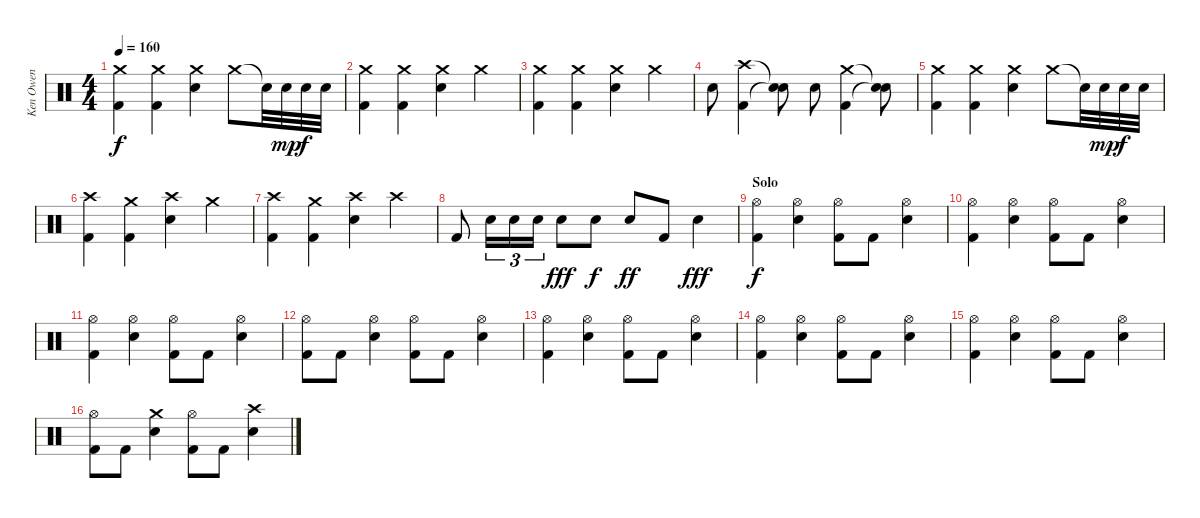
\track ("Ken Owen" "Ken Owen") {instrument percussion}
\staff {score}
\articulation defaults
\ts (4 4)
\tempo 160
\clef neutral
\ks c
("Crash medium (hit)" "Kick (hit) 2").4{dy f} ("Crash medium (hit)" "Kick (hit) 2").4 ("Crash medium (hit)" "Electric Snare (hit)").4 "Crash medium (hit)".8 "Snare (hit)"{t}.32 "Electric Snare (hit)".32{dy mp} "Electric Snare (hit)".32{dy f} "Electric Snare (hit)".32 |
("Crash medium (hit)" "Kick (hit) 2").4 ("Crash medium (hit)" "Kick (hit) 2").4 ("Crash medium (hit)" "Electric Snare (hit)").4 "Crash medium (hit)".4 |
("Crash medium (hit)" "Kick (hit) 2").4 ("Crash medium (hit)" "Kick (hit) 2").4 ("Crash medium (hit)" "Electric Snare (hit)").4 "Crash medium (hit)".4 |
"Electric Snare (hit)".8 ("Crash high (hit)" "Kick (hit) 2").4 ("Snare (hit)"{t} "Snare (hit)"{t}).8 "Electric Snare (hit)".8 ("Crash medium (hit)" "Kick (hit) 2").4 ("Snare (hit)"{t} "Snare (hit)"{t}).8 |
("Crash medium (hit)" "Kick (hit) 2").4 ("Crash medium (hit)" "Kick (hit) 2").4 ("Crash medium (hit)" "Electric Snare (hit)").4 "Crash medium (hit)".8 "Snare (hit)"{t}.32 "Electric Snare (hit)".32{dy mp} "Electric Snare (hit)".32{dy f} "Electric Snare (hit)".32 |
("Crash high (hit)" "Kick (hit) 2").4 ("Crash medium (hit)" "Kick (hit) 2").4 ("Crash high (hit)" "Electric Snare (hit)").4 "Crash medium (hit)".4 |
("Crash high (hit)" "Kick (hit) 2").4 ("Crash medium (hit)" "Kick (hit) 2").4 ("Crash high (hit)" "Electric Snare (hit)").4 "Crash high (hit)".4 |
"Kick (hit) 2".8 "Electric Snare (hit)".16{tu (3 2)} "Electric Snare (hit)".16{tu (3 2)} "Electric Snare (hit)".16{tu (3 2)} "Electric Snare (hit)".8{dy fff} "Electric Snare (hit)".8{dy f} "Electric Snare (hit)".8{dy ff} "Kick (hit) 2".8 "Electric Snare (hit)".4{dy fff} |
\section ("" "Solo")
("Hi-Hat (open)" "Kick (hit) 2").4{dy f} ("Hi-Hat (open)" "Electric Snare (hit)").4 ("Hi-Hat (open)" "Kick (hit) 2").8 "Kick (hit) 2".8 ("Hi-Hat (open)" "Electric Snare (hit)").4 |
("Hi-Hat (open)" "Kick (hit) 2").4 ("Hi-Hat (open)" "Electric Snare (hit)").4 ("Hi-Hat (open)" "Kick (hit) 2").8 "Kick (hit) 2".8 ("Hi-Hat (open)" "Electric Snare (hit)").4 |
("Hi-Hat (open)" "Kick (hit) 2").4 ("Hi-Hat (open)" "Electric Snare (hit)").4 ("Hi-Hat (open)" "Kick (hit) 2").8 "Kick (hit) 2".8 ("Hi-Hat (open)" "Electric Snare (hit)").4 |
("Hi-Hat (open)" "Kick (hit) 2").8 "Kick (hit) 2".8 ("Hi-Hat (open)" "Electric Snare (hit)").4 ("Hi-Hat (open)" "Kick (hit) 2").8 "Kick (hit) 2".8 ("Hi-Hat (open)" "Electric Snare (hit)").4 |
("Hi-Hat (open)" "Kick (hit) 2").4 ("Hi-Hat (open)" "Electric Snare (hit)").4 ("Hi-Hat (open)" "Kick (hit) 2").8 "Kick (hit) 2".8 ("Hi-Hat (open)" "Electric Snare (hit)").4 |
("Hi-Hat (open)" "Kick (hit) 2").4 ("Hi-Hat (open)" "Electric Snare (hit)").4 ("Hi-Hat (open)" "Kick (hit) 2").8 "Kick (hit) 2".8 ("Hi-Hat (open)" "Electric Snare (hit)").4 |
("Hi-Hat (open)" "Kick (hit) 2").4 ("Hi-Hat (open)" "Electric Snare (hit)").4 ("Hi-Hat (open)" "Kick (hit) 2").8 "Kick (hit) 2".8 ("Hi-Hat (open)" "Electric Snare (hit)").4 |
("Hi-Hat (open)" "Kick (hit) 2").8 "Kick (hit) 2".8 ("Crash medium (hit)" "Electric Snare (hit)").4 ("Hi-Hat (open)" "Kick (hit) 2").8 "Kick (hit) 2".8 ("Crash high (hit)" "Electric Snare (hit)").4
